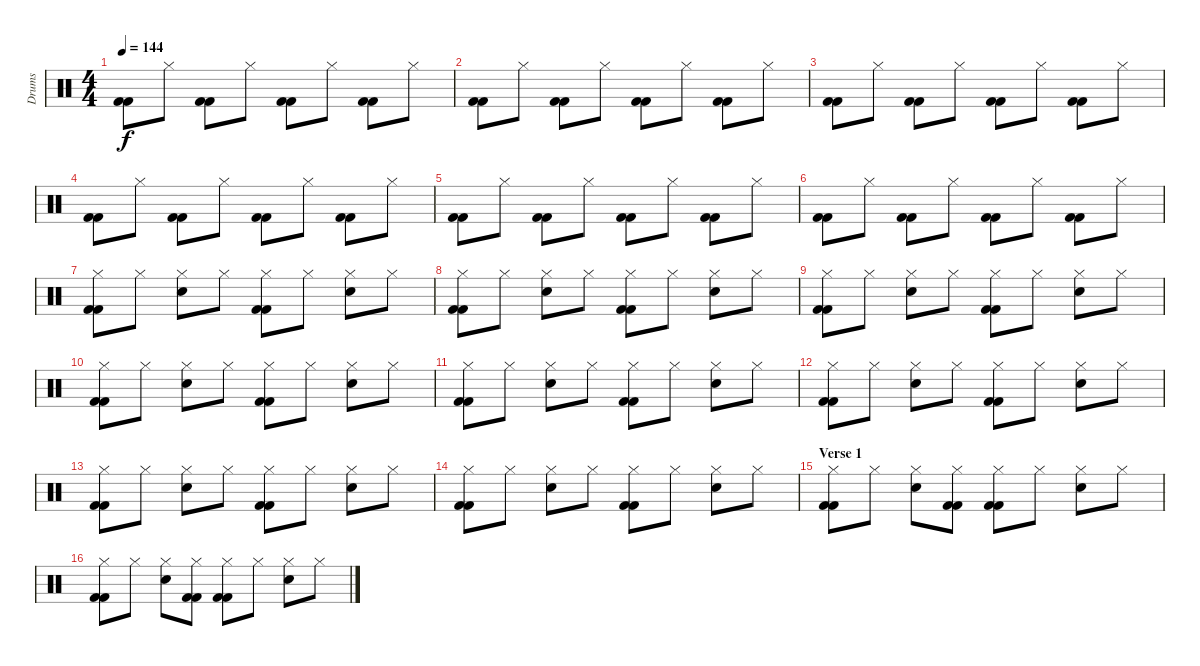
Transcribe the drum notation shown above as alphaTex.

\track ("Drums" "Drums") {instrument percussion}
\staff {score}
\articulation defaults
\ts (4 4)
\tempo 144
\clef neutral
\ks c
("Kick (hit) 2" "Kick (hit) 2").8{dy f} "Hi-Hat (closed)".8 ("Kick (hit) 2" "Kick (hit) 2").8 "Hi-Hat (closed)".8 ("Kick (hit) 2" "Kick (hit) 2").8 "Hi-Hat (closed)".8 ("Kick (hit) 2" "Kick (hit) 2").8 "Hi-Hat (closed)".8 |
("Kick (hit) 2" "Kick (hit) 2").8 "Hi-Hat (closed)".8 ("Kick (hit) 2" "Kick (hit) 2").8 "Hi-Hat (closed)".8 ("Kick (hit) 2" "Kick (hit) 2").8 "Hi-Hat (closed)".8 ("Kick (hit) 2" "Kick (hit) 2").8 "Hi-Hat (closed)".8 |
("Kick (hit) 2" "Kick (hit) 2").8 "Hi-Hat (closed)".8 ("Kick (hit) 2" "Kick (hit) 2").8 "Hi-Hat (closed)".8 ("Kick (hit) 2" "Kick (hit) 2").8 "Hi-Hat (closed)".8 ("Kick (hit) 2" "Kick (hit) 2").8 "Hi-Hat (closed)".8 |
("Kick (hit) 2" "Kick (hit) 2").8 "Hi-Hat (closed)".8 ("Kick (hit) 2" "Kick (hit) 2").8 "Hi-Hat (closed)".8 ("Kick (hit) 2" "Kick (hit) 2").8 "Hi-Hat (closed)".8 ("Kick (hit) 2" "Kick (hit) 2").8 "Hi-Hat (closed)".8 |
("Kick (hit) 2" "Kick (hit) 2").8 "Hi-Hat (closed)".8 ("Kick (hit) 2" "Kick (hit) 2").8 "Hi-Hat (closed)".8 ("Kick (hit) 2" "Kick (hit) 2").8 "Hi-Hat (closed)".8 ("Kick (hit) 2" "Kick (hit) 2").8 "Hi-Hat (closed)".8 |
("Kick (hit) 2" "Kick (hit) 2").8 "Hi-Hat (closed)".8 ("Kick (hit) 2" "Kick (hit) 2").8 "Hi-Hat (closed)".8 ("Kick (hit) 2" "Kick (hit) 2").8 "Hi-Hat (closed)".8 ("Kick (hit) 2" "Kick (hit) 2").8 "Hi-Hat (closed)".8 |
("Kick (hit) 2" "Kick (hit) 2" "Hi-Hat (closed)").8 "Hi-Hat (closed)".8 ("Snare (hit) 2" "Hi-Hat (closed)").8 "Hi-Hat (closed)".8 ("Kick (hit) 2" "Kick (hit) 2" "Hi-Hat (closed)").8 "Hi-Hat (closed)".8 ("Snare (hit) 2" "Hi-Hat (closed)").8 "Hi-Hat (closed)".8 |
("Kick (hit) 2" "Kick (hit) 2" "Hi-Hat (closed)").8 "Hi-Hat (closed)".8 ("Snare (hit) 2" "Hi-Hat (closed)").8 "Hi-Hat (closed)".8 ("Kick (hit) 2" "Kick (hit) 2" "Hi-Hat (closed)").8 "Hi-Hat (closed)".8 ("Snare (hit) 2" "Hi-Hat (closed)").8 "Hi-Hat (closed)".8 |
("Kick (hit) 2" "Kick (hit) 2" "Hi-Hat (closed)").8 "Hi-Hat (closed)".8 ("Snare (hit) 2" "Hi-Hat (closed)").8 "Hi-Hat (closed)".8 ("Kick (hit) 2" "Kick (hit) 2" "Hi-Hat (closed)").8 "Hi-Hat (closed)".8 ("Snare (hit) 2" "Hi-Hat (closed)").8 "Hi-Hat (closed)".8 |
("Kick (hit) 2" "Kick (hit) 2" "Hi-Hat (closed)").8 "Hi-Hat (closed)".8 ("Snare (hit) 2" "Hi-Hat (closed)").8 "Hi-Hat (closed)".8 ("Kick (hit) 2" "Kick (hit) 2" "Hi-Hat (closed)").8 "Hi-Hat (closed)".8 ("Snare (hit) 2" "Hi-Hat (closed)").8 "Hi-Hat (closed)".8 |
("Kick (hit) 2" "Kick (hit) 2" "Hi-Hat (closed)").8 "Hi-Hat (closed)".8 ("Snare (hit) 2" "Hi-Hat (closed)").8 "Hi-Hat (closed)".8 ("Kick (hit) 2" "Kick (hit) 2" "Hi-Hat (closed)").8 "Hi-Hat (closed)".8 ("Snare (hit) 2" "Hi-Hat (closed)").8 "Hi-Hat (closed)".8 |
("Kick (hit) 2" "Kick (hit) 2" "Hi-Hat (closed)").8 "Hi-Hat (closed)".8 ("Snare (hit) 2" "Hi-Hat (closed)").8 "Hi-Hat (closed)".8 ("Kick (hit) 2" "Kick (hit) 2" "Hi-Hat (closed)").8 "Hi-Hat (closed)".8 ("Snare (hit) 2" "Hi-Hat (closed)").8 "Hi-Hat (closed)".8 |
("Kick (hit) 2" "Kick (hit) 2" "Hi-Hat (closed)").8 "Hi-Hat (closed)".8 ("Snare (hit) 2" "Hi-Hat (closed)").8 "Hi-Hat (closed)".8 ("Kick (hit) 2" "Kick (hit) 2" "Hi-Hat (closed)").8 "Hi-Hat (closed)".8 ("Snare (hit) 2" "Hi-Hat (closed)").8 "Hi-Hat (closed)".8 |
("Kick (hit) 2" "Kick (hit) 2" "Hi-Hat (closed)").8 "Hi-Hat (closed)".8 ("Snare (hit) 2" "Hi-Hat (closed)").8 "Hi-Hat (closed)".8 ("Kick (hit) 2" "Kick (hit) 2" "Hi-Hat (closed)").8 "Hi-Hat (closed)".8 ("Snare (hit) 2" "Hi-Hat (closed)").8 "Hi-Hat (closed)".8 |
\section ("" "Verse 1")
("Kick (hit) 2" "Kick (hit) 2" "Hi-Hat (closed)").8 "Hi-Hat (closed)".8 ("Snare (hit) 2" "Hi-Hat (closed)").8 ("Kick (hit) 2" "Kick (hit) 2" "Hi-Hat (closed)").8 ("Kick (hit) 2" "Kick (hit) 2" "Hi-Hat (closed)").8 "Hi-Hat (closed)".8 ("Snare (hit) 2" "Hi-Hat (closed)").8 "Hi-Hat (closed)".8 |
("Kick (hit) 2" "Kick (hit) 2" "Hi-Hat (closed)").8 "Hi-Hat (closed)".8 ("Snare (hit) 2" "Hi-Hat (closed)").8 ("Kick (hit) 2" "Kick (hit) 2" "Hi-Hat (closed)").8 ("Kick (hit) 2" "Kick (hit) 2" "Hi-Hat (closed)").8 "Hi-Hat (closed)".8 ("Snare (hit) 2" "Hi-Hat (closed)").8 "Hi-Hat (closed)".8
